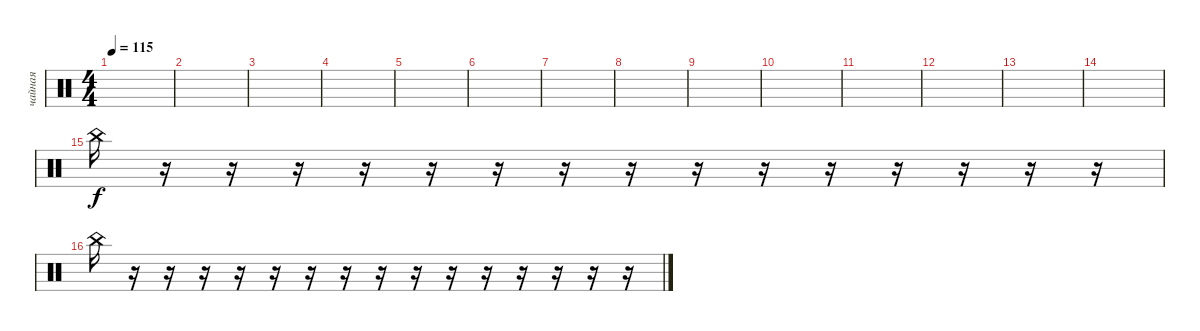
\track ("чайная" "чайная") {mute instrument percussion}
\staff {score}
\articulation defaults
\ts (4 4)
\tempo 115
\clef neutral
\ks c
|
|
|
|
|
|
|
|
|
|
|
|
|
|
"China (hit)".16 r.16 r.16 r.16 r.16 r.16 r.16 r.16 r.16 r.16 r.16 r.16 r.16 r.16 r.16 r.16 |
"China (hit)".16 r.16 r.16 r.16 r.16 r.16 r.16 r.16 r.16 r.16 r.16 r.16 r.16 r.16 r.16 r.16
